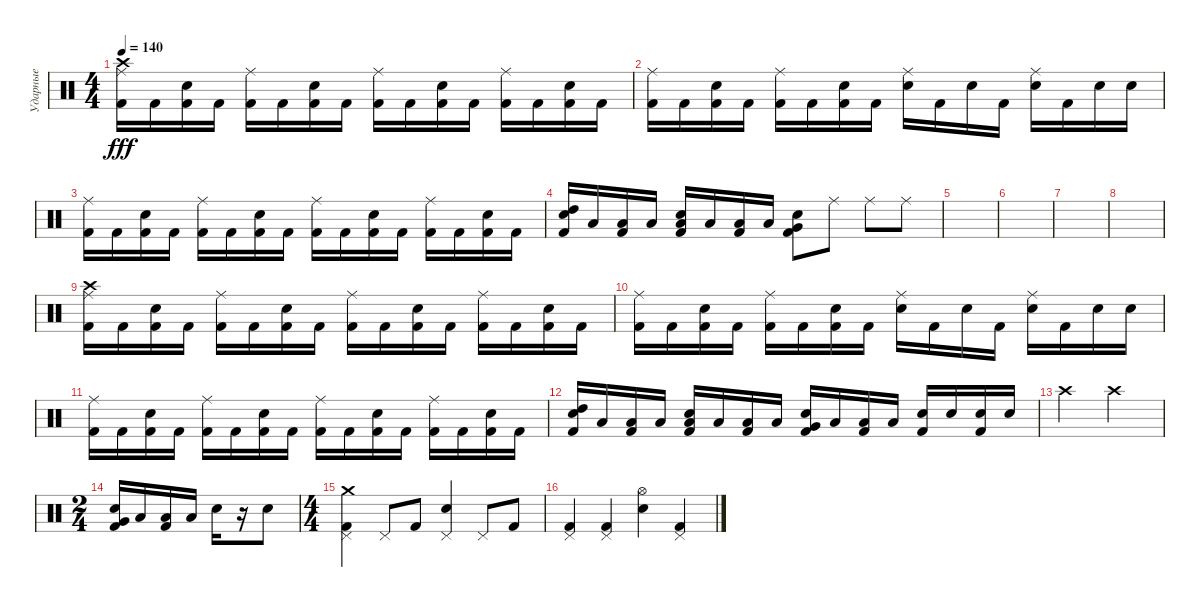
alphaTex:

\track ("Ударные" "Ударные") {instrument percussion}
\staff {score}
\articulation defaults
\ts (4 4)
\tempo 140
\clef neutral
\ks c
("Kick (hit) 2" "Ride (middle)" "Crash high (hit)").16{dy fff} "Kick (hit) 2".16 ("Kick (hit) 2" "Snare (hit) 2").16 "Kick (hit) 2".16 ("Kick (hit) 2" "Ride (middle)").16 "Kick (hit) 2".16 ("Kick (hit) 2" "Snare (hit) 2").16 "Kick (hit) 2".16 ("Kick (hit) 2" "Ride (middle)").16 "Kick (hit) 2".16 ("Kick (hit) 2" "Snare (hit) 2").16 "Kick (hit) 2".16 ("Kick (hit) 2" "Ride (middle)").16 "Kick (hit) 2".16 ("Kick (hit) 2" "Snare (hit) 2").16 "Kick (hit) 2".16 |
("Kick (hit) 2" "Ride (middle)").16 "Kick (hit) 2".16 ("Kick (hit) 2" "Snare (hit) 2").16 "Kick (hit) 2".16 ("Kick (hit) 2" "Ride (middle)").16 "Kick (hit) 2".16 ("Kick (hit) 2" "Snare (hit) 2").16 "Kick (hit) 2".16 ("Snare (hit) 2" "Ride (middle)").16 "Kick (hit) 2".16 "Snare (hit) 2".16 "Kick (hit) 2".16 ("Snare (hit) 2" "Ride (middle)").16 "Kick (hit) 2".16 "Snare (hit) 2".16 "Snare (hit) 2".16 |
("Kick (hit) 2" "Ride (middle)").16 "Kick (hit) 2".16 ("Kick (hit) 2" "Snare (hit) 2").16 "Kick (hit) 2".16 ("Kick (hit) 2" "Ride (middle)").16 "Kick (hit) 2".16 ("Kick (hit) 2" "Snare (hit) 2").16 "Kick (hit) 2".16 ("Kick (hit) 2" "Ride (middle)").16 "Kick (hit) 2".16 ("Kick (hit) 2" "Snare (hit) 2").16 "Kick (hit) 2".16 ("Kick (hit) 2" "Ride (middle)").16 "Kick (hit) 2".16 ("Kick (hit) 2" "Snare (hit) 2").16 "Kick (hit) 2".16 |
("High Tom (hit)" "Snare (hit) 2" "Kick (hit) 2").16 "Low Floor Tom (hit)".16 ("Low Floor Tom (hit)" "Kick (hit) 2").16 "Low Floor Tom (hit)".16 ("Low Tom (hit)" "Snare (hit) 2" "Kick (hit) 2").16 "Low Floor Tom (hit)".16 ("Low Floor Tom (hit)" "Kick (hit) 2").16 "Low Floor Tom (hit)".16 ("Very Low Tom (hit)" "Snare (hit) 2" "Kick (hit) 2").8 "Ride (middle)".8 "Ride (middle)".8 "Ride (middle)".8 |
|
|
|
|
("Kick (hit) 2" "Ride (middle)" "Crash high (hit)").16 "Kick (hit) 2".16 ("Kick (hit) 2" "Snare (hit) 2").16 "Kick (hit) 2".16 ("Kick (hit) 2" "Ride (middle)").16 "Kick (hit) 2".16 ("Kick (hit) 2" "Snare (hit) 2").16 "Kick (hit) 2".16 ("Kick (hit) 2" "Ride (middle)").16 "Kick (hit) 2".16 ("Kick (hit) 2" "Snare (hit) 2").16 "Kick (hit) 2".16 ("Kick (hit) 2" "Ride (middle)").16 "Kick (hit) 2".16 ("Kick (hit) 2" "Snare (hit) 2").16 "Kick (hit) 2".16 |
("Kick (hit) 2" "Ride (middle)").16 "Kick (hit) 2".16 ("Kick (hit) 2" "Snare (hit) 2").16 "Kick (hit) 2".16 ("Kick (hit) 2" "Ride (middle)").16 "Kick (hit) 2".16 ("Kick (hit) 2" "Snare (hit) 2").16 "Kick (hit) 2".16 ("Snare (hit) 2" "Ride (middle)").16 "Kick (hit) 2".16 "Snare (hit) 2".16 "Kick (hit) 2".16 ("Snare (hit) 2" "Ride (middle)").16 "Kick (hit) 2".16 "Snare (hit) 2".16 "Snare (hit) 2".16 |
("Kick (hit) 2" "Ride (middle)").16 "Kick (hit) 2".16 ("Kick (hit) 2" "Snare (hit) 2").16 "Kick (hit) 2".16 ("Kick (hit) 2" "Ride (middle)").16 "Kick (hit) 2".16 ("Kick (hit) 2" "Snare (hit) 2").16 "Kick (hit) 2".16 ("Kick (hit) 2" "Ride (middle)").16 "Kick (hit) 2".16 ("Kick (hit) 2" "Snare (hit) 2").16 "Kick (hit) 2".16 ("Kick (hit) 2" "Ride (middle)").16 "Kick (hit) 2".16 ("Kick (hit) 2" "Snare (hit) 2").16 "Kick (hit) 2".16 |
("High Tom (hit)" "Snare (hit) 2" "Kick (hit) 2").16 "Low Floor Tom (hit)".16 ("Low Floor Tom (hit)" "Kick (hit) 2").16 "Low Floor Tom (hit)".16 ("Low Tom (hit)" "Snare (hit) 2" "Kick (hit) 2").16 "Low Floor Tom (hit)".16 ("Low Floor Tom (hit)" "Kick (hit) 2").16 "Low Floor Tom (hit)".16 ("Very Low Tom (hit)" "Snare (hit) 2" "Kick (hit) 2").16 "Low Floor Tom (hit)".16 ("Low Floor Tom (hit)" "Kick (hit) 2").16 "Low Floor Tom (hit)".16 ("Snare (hit) 2" "Kick (hit) 2").16 "Snare (hit) 2".16 ("Snare (hit) 2" "Kick (hit) 2").16 "Snare (hit) 2".16 |
"Crash high (hit)".2 "Crash high (hit)".2 |
\ts (2 4)
("Very Low Tom (hit)" "Snare (hit) 2" "Kick (hit) 2").16 "Low Floor Tom (hit)".16 ("Low Floor Tom (hit)" "Kick (hit) 2").16 "Low Floor Tom (hit)".16 "Snare (hit) 2".16 r.16 "Snare (hit) 2".8 |
\ts (4 4)
("Kick (hit) 2" "Pedal Hi-Hat (hit)" "Crash medium (hit)").4 "Pedal Hi-Hat (hit)".8 "Kick (hit) 2".8 ("Snare (hit) 2" "Pedal Hi-Hat (hit)").4 "Pedal Hi-Hat (hit)".8 "Kick (hit) 2".8 |
("Kick (hit) 2" "Pedal Hi-Hat (hit)").4 ("Kick (hit) 2" "Pedal Hi-Hat (hit)").4 ("Snare (hit) 2" "Hi-Hat (open)").4 ("Kick (hit) 2" "Pedal Hi-Hat (hit)").4
